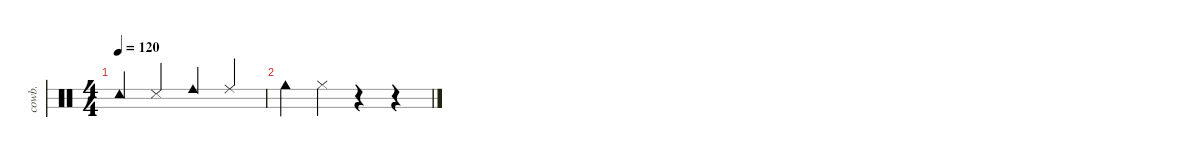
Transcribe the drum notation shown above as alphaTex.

\defaultSystemsLayout 4
\hideDynamics
\bracketExtendMode nobrackets
\otherSystemsTrackNameOrientation horizontal
\track ("Three Lines" "cowb.") {instrument percussion}
\staff {score 3}
\articulation defaults
\ts (4 4)
\tempo 120
\clef neutral
\ks c "Cowbell low (hit)".4{dy mf beam Up} "Cowbell low (tip)".4{beam Up} "Cowbell medium (hit)".4{beam Up} "Cowbell medium (tip)".4{beam Up}
|
"Cowbell high (hit)".4{beam Down} "Cowbell high (tip)".4{beam Down} r.4{beam Down} r.4{beam Down}
